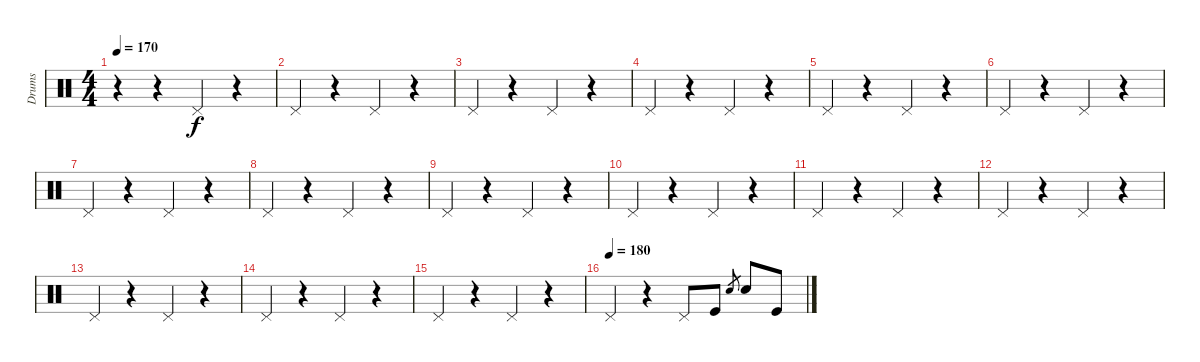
\track ("Drums" "Drums") {instrument percussion}
\staff {score}
\articulation defaults
\ts (4 4)
\tempo 170
\clef neutral
\ks c
r.4{dy f} r.4 "Pedal Hi-Hat (hit)".4 r.4 |
"Pedal Hi-Hat (hit)".4 r.4 "Pedal Hi-Hat (hit)".4 r.4 |
"Pedal Hi-Hat (hit)".4 r.4 "Pedal Hi-Hat (hit)".4 r.4 |
"Pedal Hi-Hat (hit)".4 r.4 "Pedal Hi-Hat (hit)".4 r.4 |
"Pedal Hi-Hat (hit)".4 r.4 "Pedal Hi-Hat (hit)".4 r.4 |
"Pedal Hi-Hat (hit)".4 r.4 "Pedal Hi-Hat (hit)".4 r.4 |
"Pedal Hi-Hat (hit)".4 r.4 "Pedal Hi-Hat (hit)".4 r.4 |
"Pedal Hi-Hat (hit)".4 r.4 "Pedal Hi-Hat (hit)".4 r.4 |
"Pedal Hi-Hat (hit)".4 r.4 "Pedal Hi-Hat (hit)".4 r.4 |
"Pedal Hi-Hat (hit)".4 r.4 "Pedal Hi-Hat (hit)".4 r.4 |
"Pedal Hi-Hat (hit)".4 r.4 "Pedal Hi-Hat (hit)".4 r.4 |
"Pedal Hi-Hat (hit)".4 r.4 "Pedal Hi-Hat (hit)".4 r.4 |
"Pedal Hi-Hat (hit)".4 r.4 "Pedal Hi-Hat (hit)".4 r.4 |
"Pedal Hi-Hat (hit)".4 r.4 "Pedal Hi-Hat (hit)".4 r.4 |
"Pedal Hi-Hat (hit)".4 r.4 "Pedal Hi-Hat (hit)".4 r.4 |
\tempo (180)
"Pedal Hi-Hat (hit)".4 r.4 "Pedal Hi-Hat (hit)".8 "Kick (hit)".8 "Electric Snare (hit)".8{gr} "Electric Snare (hit)".8 "Kick (hit)".8
